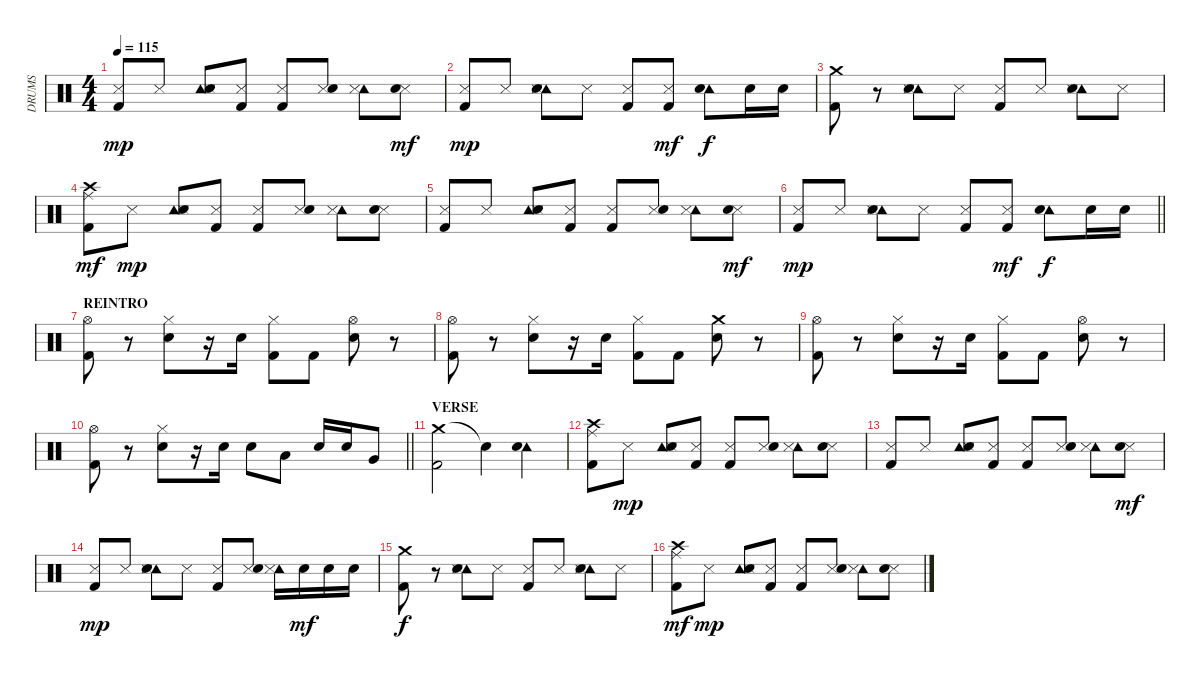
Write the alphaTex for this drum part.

\track ("DRUMS" "DRUMS") {instrument percussion}
\staff {score}
\articulation defaults
\ts (4 4)
\tempo 115
\clef neutral
\ks c
("Snare (side stick) 3" "Kick (hit) 2").8{dy mp} "Snare (side stick) 3".8 ("Tambourine (hit)" "Snare (side stick) 3" "Electric Snare (hit)").8 ("Snare (side stick) 3" "Kick (hit) 2").8 ("Snare (side stick) 3" "Kick (hit) 2").8 ("Snare (side stick) 3" "Electric Snare (hit)").8 ("Tambourine (hit)" "Snare (side stick) 3").8 ("Snare (side stick) 3" "Electric Snare (hit)").8{dy mf} |
("Snare (side stick) 3" "Kick (hit) 2").8{dy mp} "Snare (side stick) 3".8 ("Tambourine (hit)" "Snare (side stick) 3" "Electric Snare (hit)").8 "Snare (side stick) 3".8 ("Snare (side stick) 3" "Kick (hit) 2").8 ("Snare (side stick) 3" "Kick (hit) 2").8{dy mf} ("Tambourine (hit)" "Electric Snare (hit)").8{dy f} "Electric Snare (hit)".16 "Electric Snare (hit)".16 |
("Crash medium (hit)" "Kick (hit) 2").8 r.8 ("Tambourine (hit)" "Snare (side stick) 3" "Electric Snare (hit)").8 "Snare (side stick) 3".8 ("Snare (side stick) 3" "Kick (hit) 2").8 "Snare (side stick) 3".8 ("Tambourine (hit)" "Snare (side stick) 3" "Electric Snare (hit)").8 "Snare (side stick) 3".8 |
("Crash high (hit)" "Ride (middle)" "Kick (hit) 2").8{dy mf} "Snare (side stick) 3".8{dy mp} ("Tambourine (hit)" "Snare (side stick) 3" "Electric Snare (hit)").8 ("Snare (side stick) 3" "Kick (hit) 2").8 ("Snare (side stick) 3" "Kick (hit) 2").8 ("Snare (side stick) 3" "Electric Snare (hit)").8 ("Tambourine (hit)" "Snare (side stick) 3").8 ("Snare (side stick) 3" "Electric Snare (hit)").8 |
("Snare (side stick) 3" "Kick (hit) 2").8 "Snare (side stick) 3".8 ("Tambourine (hit)" "Snare (side stick) 3" "Electric Snare (hit)").8 ("Snare (side stick) 3" "Kick (hit) 2").8 ("Snare (side stick) 3" "Kick (hit) 2").8 ("Snare (side stick) 3" "Electric Snare (hit)").8 ("Tambourine (hit)" "Snare (side stick) 3").8 ("Snare (side stick) 3" "Electric Snare (hit)").8{dy mf} |
\barLineRight lightlight
("Snare (side stick) 3" "Kick (hit) 2").8{dy mp} "Snare (side stick) 3".8 ("Tambourine (hit)" "Snare (side stick) 3" "Electric Snare (hit)").8 "Snare (side stick) 3".8 ("Snare (side stick) 3" "Kick (hit) 2").8 ("Snare (side stick) 3" "Kick (hit) 2").8{dy mf} ("Tambourine (hit)" "Electric Snare (hit)").8{dy f} "Electric Snare (hit)".16 "Electric Snare (hit)".16 |
\section ("" "REINTRO")
("Hi-Hat (open)" "Kick (hit) 2").8 r.8 ("Hi-Hat (closed)" "Electric Snare (hit)").8 r.16 "Electric Snare (hit)".16 ("Hi-Hat (closed)" "Kick (hit) 2").8 "Kick (hit) 2".8 ("Hi-Hat (open)" "Electric Snare (hit)").8 r.8 |
("Hi-Hat (open)" "Kick (hit) 2").8 r.8 ("Hi-Hat (closed)" "Electric Snare (hit)").8 r.16 "Electric Snare (hit)".16 ("Hi-Hat (closed)" "Kick (hit) 2").8 "Kick (hit) 2".8 ("Crash medium (hit)" "Electric Snare (hit)").8 r.8 |
("Hi-Hat (open)" "Kick (hit) 2").8 r.8 ("Hi-Hat (closed)" "Electric Snare (hit)").8 r.16 "Electric Snare (hit)".16 ("Hi-Hat (closed)" "Kick (hit) 2").8 "Kick (hit) 2".8 ("Hi-Hat (open)" "Electric Snare (hit)").8 r.8 |
\barLineRight lightlight
("Hi-Hat (open)" "Kick (hit) 2").8 r.8 ("Hi-Hat (closed)" "Electric Snare (hit)").8 r.16 "Electric Snare (hit)".16 "Electric Snare (hit)".8 "Low Tom (hit)".8 "Electric Snare (hit)".16 "Electric Snare (hit)".16 "Very Low Tom (hit)".8 |
\section ("" "VERSE")
("Crash medium (hit)" "Kick (hit) 2").2 "Snare (hit)"{t}.4 ("Tambourine (hit)" "Electric Snare (hit)").4 |
("Crash high (hit)" "Ride (middle)" "Kick (hit) 2").8 "Snare (side stick) 3".8{dy mp} ("Tambourine (hit)" "Snare (side stick) 3" "Electric Snare (hit)").8 ("Snare (side stick) 3" "Kick (hit) 2").8 ("Snare (side stick) 3" "Kick (hit) 2").8 ("Snare (side stick) 3" "Electric Snare (hit)").8 ("Tambourine (hit)" "Snare (side stick) 3").8 ("Snare (side stick) 3" "Electric Snare (hit)").8 |
("Snare (side stick) 3" "Kick (hit) 2").8 "Snare (side stick) 3".8 ("Tambourine (hit)" "Snare (side stick) 3" "Electric Snare (hit)").8 ("Snare (side stick) 3" "Kick (hit) 2").8 ("Snare (side stick) 3" "Kick (hit) 2").8 ("Snare (side stick) 3" "Electric Snare (hit)").8 ("Tambourine (hit)" "Snare (side stick) 3").8 ("Snare (side stick) 3" "Electric Snare (hit)").8{dy mf} |
("Snare (side stick) 3" "Kick (hit) 2").8{dy mp} "Snare (side stick) 3".8 ("Tambourine (hit)" "Snare (side stick) 3" "Electric Snare (hit)").8 "Snare (side stick) 3".8 ("Snare (side stick) 3" "Kick (hit) 2").8 ("Snare (side stick) 3" "Electric Snare (hit)").8 ("Tambourine (hit)" "Snare (side stick) 3").16 "Electric Snare (hit)".16{dy mf} "Electric Snare (hit)".16 "Electric Snare (hit)".16 |
("Crash medium (hit)" "Kick (hit) 2").8{dy f} r.8 ("Tambourine (hit)" "Snare (side stick) 3" "Electric Snare (hit)").8 "Snare (side stick) 3".8 ("Snare (side stick) 3" "Kick (hit) 2").8 "Snare (side stick) 3".8 ("Tambourine (hit)" "Snare (side stick) 3" "Electric Snare (hit)").8 "Snare (side stick) 3".8 |
("Crash high (hit)" "Ride (middle)" "Kick (hit) 2").8{dy mf} "Snare (side stick) 3".8{dy mp} ("Tambourine (hit)" "Snare (side stick) 3" "Electric Snare (hit)").8 ("Snare (side stick) 3" "Kick (hit) 2").8 ("Snare (side stick) 3" "Kick (hit) 2").8 ("Snare (side stick) 3" "Electric Snare (hit)").8 ("Tambourine (hit)" "Snare (side stick) 3").8 ("Snare (side stick) 3" "Electric Snare (hit)").8
